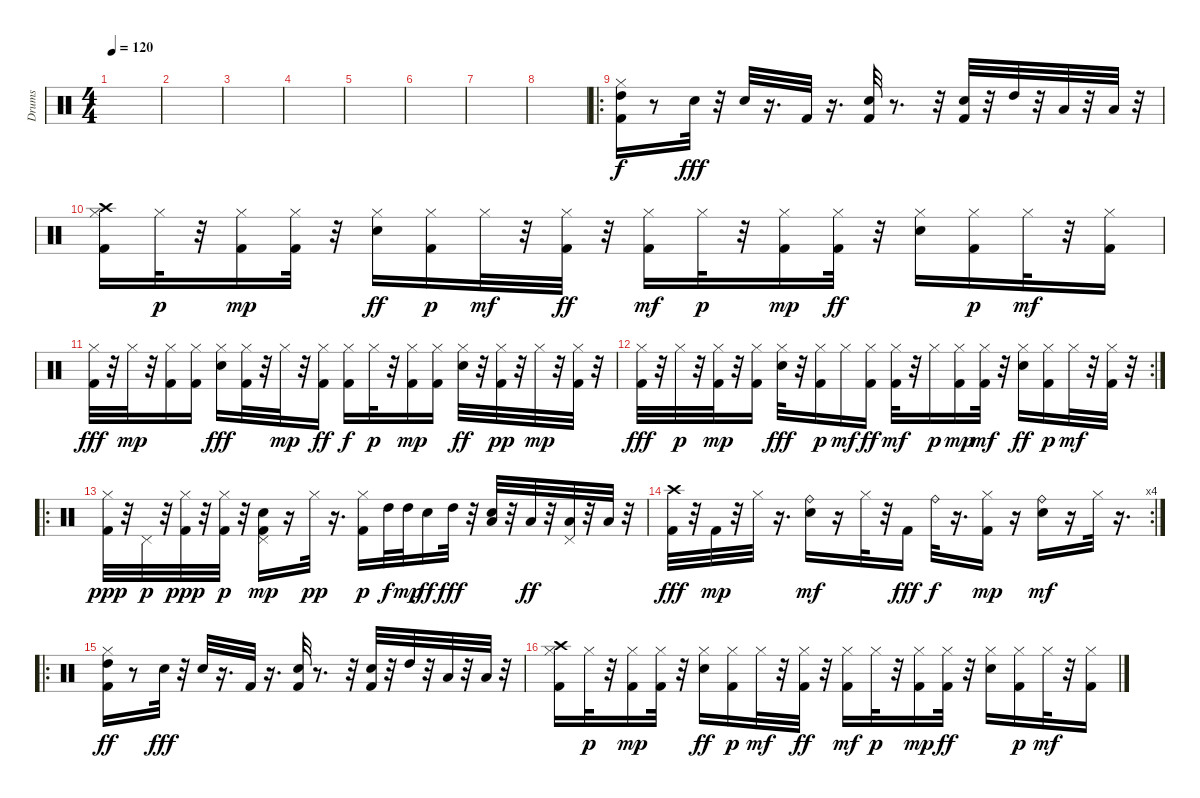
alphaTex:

\track ("Drums" "Drums") {instrument percussion}
\staff {score}
\articulation defaults
\ts (4 4)
\tempo 120
\clef neutral
\ks c
|
|
|
|
|
|
|
|
\ro
("High Tom (hit)" "Kick (hit) 2" "Hi-Hat (closed)").16 r.8 "Snare (hit) 2".32{dy fff} r.32 "Snare (hit) 2".32 r.16{d} "Kick (hit) 2".32 r.16{d} ("Kick (hit) 2" "Snare (hit) 2").32 r.8{d} r.32 ("Kick (hit) 2" "Snare (hit) 2").32 r.32 "High Tom (hit)".32 r.32 "Low Tom (hit)".32 r.32 "Low Floor Tom (hit)".32 r.32 |
("Kick (hit) 2" "Hi-Hat (closed)" "Crash high (hit)").16 "Hi-Hat (closed)".32{dy p} r.32 ("Kick (hit) 2" "Hi-Hat (closed)").16{dy mp} ("Kick (hit) 2" "Hi-Hat (closed)").32 r.32 ("Hi-Hat (closed)" "Snare (hit) 2").16{dy ff} ("Kick (hit) 2" "Hi-Hat (closed)").16{dy p} "Hi-Hat (closed)".32{dy mf} r.32 ("Kick (hit) 2" "Hi-Hat (closed)").32{dy ff} r.32 ("Kick (hit) 2" "Hi-Hat (closed)").16{dy mf} "Hi-Hat (closed)".32{dy p} r.32 ("Kick (hit) 2" "Hi-Hat (closed)").16{dy mp} ("Kick (hit) 2" "Hi-Hat (closed)").32{dy ff} r.32 ("Hi-Hat (closed)" "Snare (hit) 2").16 ("Kick (hit) 2" "Hi-Hat (closed)").16{dy p} "Hi-Hat (closed)".32{dy mf} r.32 ("Kick (hit) 2" "Hi-Hat (closed)").16 |
("Hi-Hat (closed)" "Kick (hit) 2").32{dy fff} r.32 "Hi-Hat (closed)".32{dy mp} r.32 ("Kick (hit) 2" "Hi-Hat (closed)").16 ("Kick (hit) 2" "Hi-Hat (closed)").16 ("Hi-Hat (closed)" "Snare (hit) 2").16{dy fff} ("Hi-Hat (closed)" "Kick (hit) 2").32 r.32 "Hi-Hat (closed)".32{dy mp} r.32 ("Kick (hit) 2" "Hi-Hat (closed)").16{dy ff} ("Hi-Hat (closed)" "Kick (hit) 2").16{dy f} "Hi-Hat (closed)".32{dy p} r.32 ("Kick (hit) 2" "Hi-Hat (closed)").16{dy mp} ("Kick (hit) 2" "Hi-Hat (closed)").16 ("Hi-Hat (closed)" "Snare (hit) 2").32{dy ff} r.32 ("Kick (hit) 2" "Hi-Hat (closed)").32{dy pp} r.32 "Hi-Hat (closed)".32{dy mp} r.32 ("Kick (hit) 2" "Hi-Hat (closed)").32 r.32 |
\rc 2
("Hi-Hat (closed)" "Kick (hit) 2").32{dy fff} r.32 "Hi-Hat (closed)".32{dy p} r.32 ("Kick (hit) 2" "Hi-Hat (closed)").32{dy mp} r.32 ("Kick (hit) 2" "Hi-Hat (closed)").16 ("Hi-Hat (closed)" "Snare (hit) 2").32{dy fff} r.32 ("Kick (hit) 2" "Hi-Hat (closed)").16{dy p} "Hi-Hat (closed)".16{dy mf} ("Hi-Hat (closed)" "Kick (hit) 2").16{dy ff} ("Kick (hit) 2" "Hi-Hat (closed)").32{dy mf} r.32 "Hi-Hat (closed)".16{dy p} ("Kick (hit) 2" "Hi-Hat (closed)").16{dy mp} ("Hi-Hat (closed)" "Kick (hit) 2").32{dy mf} r.32 ("Hi-Hat (closed)" "Snare (hit) 2").16{dy ff} ("Kick (hit) 2" "Hi-Hat (closed)").16{dy p} "Hi-Hat (closed)".32{dy mf} r.32 ("Kick (hit) 2" "Hi-Hat (closed)").32 r.32 |
\ro
("Kick (hit) 2" "Hi-Hat (closed)").32{dy ppp} r.32 "Pedal Hi-Hat (hit)".32{dy p} r.32 ("Kick (hit) 2" "Hi-Hat (closed)").32{dy ppp} r.32 ("Kick (hit) 2" "Hi-Hat (closed)").32{dy p} r.32 ("Kick (hit) 2" "Snare (hit) 2" "Pedal Hi-Hat (hit)").16{dy mp} r.16 "Hi-Hat (closed)".32{dy pp} r.16{d} ("Kick (hit) 2" "Hi-Hat (closed)").16{dy p} "High Tom (hit)".32{dy f} "High Tom (hit)".32{dy mp} "Snare (hit) 2".16{dy ff} "High Tom (hit)".32{dy fff} r.32 ("Low Tom (hit)" "Snare (hit) 2").32 r.32 "Low Tom (hit)".32{dy ff} r.32 ("Pedal Hi-Hat (hit)" "Low Floor Tom (hit)").32 r.32 "Low Floor Tom (hit)".32 r.32 |
\rc 4
("Kick (hit) 2" "Crash high (hit)").32{dy fff} r.32 "Kick (hit) 2".32{dy mp} r.32 "Hi-Hat (closed)".32 r.16{d} ("Snare (hit) 2" "Ride (bell)").16{dy mf} r.16 "Hi-Hat (closed)".32 r.32 "Kick (hit) 2".16{dy fff} "Ride (bell)".32{dy f} r.16{d} ("Kick (hit) 2" "Hi-Hat (closed)").16{dy mp} r.16 ("Snare (hit) 2" "Ride (bell)").16{dy mf} r.16 "Hi-Hat (closed)".32 r.16{d} |
\ro
("High Tom (hit)" "Kick (hit) 2" "Hi-Hat (closed)").16{dy ff} r.8 "Snare (hit) 2".32{dy fff} r.32 "Snare (hit) 2".32 r.16{d} "Kick (hit) 2".32 r.16{d} ("Kick (hit) 2" "Snare (hit) 2").32 r.8{d} r.32 ("Kick (hit) 2" "Snare (hit) 2").32 r.32 "High Tom (hit)".32 r.32 "Low Tom (hit)".32 r.32 "Low Floor Tom (hit)".32 r.32 |
("Kick (hit) 2" "Hi-Hat (closed)" "Crash high (hit)").16 "Hi-Hat (closed)".32{dy p} r.32 ("Kick (hit) 2" "Hi-Hat (closed)").16{dy mp} ("Kick (hit) 2" "Hi-Hat (closed)").32 r.32 ("Hi-Hat (closed)" "Snare (hit) 2").16{dy ff} ("Kick (hit) 2" "Hi-Hat (closed)").16{dy p} "Hi-Hat (closed)".32{dy mf} r.32 ("Kick (hit) 2" "Hi-Hat (closed)").32{dy ff} r.32 ("Kick (hit) 2" "Hi-Hat (closed)").16{dy mf} "Hi-Hat (closed)".32{dy p} r.32 ("Kick (hit) 2" "Hi-Hat (closed)").16{dy mp} ("Kick (hit) 2" "Hi-Hat (closed)").32{dy ff} r.32 ("Hi-Hat (closed)" "Snare (hit) 2").16 ("Kick (hit) 2" "Hi-Hat (closed)").16{dy p} "Hi-Hat (closed)".32{dy mf} r.32 ("Kick (hit) 2" "Hi-Hat (closed)").16
